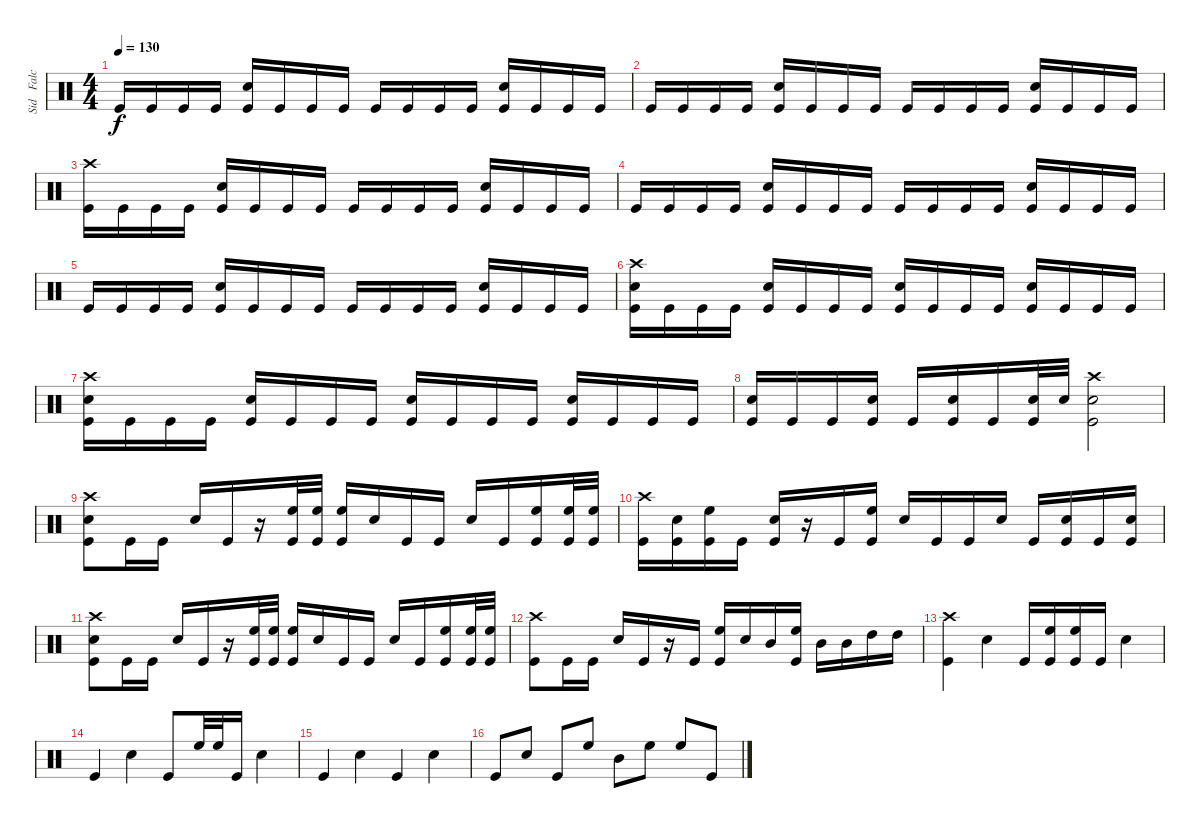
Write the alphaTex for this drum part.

\track ("Sid   Falck  - Drums" "Sid   Falc") {instrument percussion}
\staff {score}
\articulation defaults
\ts (4 4)
\tempo 130
\clef neutral
\ks c "Kick (hit)".16{dy f} "Kick (hit)".16 "Kick (hit)".16 "Kick (hit)".16
("Electric Snare (hit)" "Kick (hit)").16 "Kick (hit)".16 "Kick (hit)".16 "Kick (hit)".16 "Kick (hit)".16 "Kick (hit)".16 "Kick (hit)".16 "Kick (hit)".16 ("Electric Snare (hit)" "Kick (hit)").16 "Kick (hit)".16 "Kick (hit)".16 "Kick (hit)".16 |
"Kick (hit)".16 "Kick (hit)".16 "Kick (hit)".16 "Kick (hit)".16 ("Electric Snare (hit)" "Kick (hit)").16 "Kick (hit)".16 "Kick (hit)".16 "Kick (hit)".16 "Kick (hit)".16 "Kick (hit)".16 "Kick (hit)".16 "Kick (hit)".16 ("Electric Snare (hit)" "Kick (hit)").16 "Kick (hit)".16 "Kick (hit)".16 "Kick (hit)".16 |
("Crash high (hit)" "Kick (hit)").16 "Kick (hit)".16 "Kick (hit)".16 "Kick (hit)".16 ("Electric Snare (hit)" "Kick (hit)").16 "Kick (hit)".16 "Kick (hit)".16 "Kick (hit)".16 "Kick (hit)".16 "Kick (hit)".16 "Kick (hit)".16 "Kick (hit)".16 ("Electric Snare (hit)" "Kick (hit)").16 "Kick (hit)".16 "Kick (hit)".16 "Kick (hit)".16 |
"Kick (hit)".16 "Kick (hit)".16 "Kick (hit)".16 "Kick (hit)".16 ("Electric Snare (hit)" "Kick (hit)").16 "Kick (hit)".16 "Kick (hit)".16 "Kick (hit)".16 "Kick (hit)".16 "Kick (hit)".16 "Kick (hit)".16 "Kick (hit)".16 ("Electric Snare (hit)" "Kick (hit)").16 "Kick (hit)".16 "Kick (hit)".16 "Kick (hit)".16 |
"Kick (hit)".16 "Kick (hit)".16 "Kick (hit)".16 "Kick (hit)".16 ("Electric Snare (hit)" "Kick (hit)").16 "Kick (hit)".16 "Kick (hit)".16 "Kick (hit)".16 "Kick (hit)".16 "Kick (hit)".16 "Kick (hit)".16 "Kick (hit)".16 ("Electric Snare (hit)" "Kick (hit)").16 "Kick (hit)".16 "Kick (hit)".16 "Kick (hit)".16 |
("Crash high (hit)" "Electric Snare (hit)" "Kick (hit)").16 "Kick (hit)".16 "Kick (hit)".16 "Kick (hit)".16 ("Electric Snare (hit)" "Kick (hit)").16 "Kick (hit)".16 "Kick (hit)".16 "Kick (hit)".16 ("Electric Snare (hit)" "Kick (hit)").16 "Kick (hit)".16 "Kick (hit)".16 "Kick (hit)".16 ("Electric Snare (hit)" "Kick (hit)").16 "Kick (hit)".16 "Kick (hit)".16 "Kick (hit)".16 |
("Crash high (hit)" "Electric Snare (hit)" "Kick (hit)").16 "Kick (hit)".16 "Kick (hit)".16 "Kick (hit)".16 ("Electric Snare (hit)" "Kick (hit)").16 "Kick (hit)".16 "Kick (hit)".16 "Kick (hit)".16 ("Electric Snare (hit)" "Kick (hit)").16 "Kick (hit)".16 "Kick (hit)".16 "Kick (hit)".16 ("Electric Snare (hit)" "Kick (hit)").16 "Kick (hit)".16 "Kick (hit)".16 "Kick (hit)".16 |
("Electric Snare (hit)" "Kick (hit)").16 "Kick (hit)".16 "Kick (hit)".16 ("Electric Snare (hit)" "Kick (hit)").16 "Kick (hit)".16 ("Electric Snare (hit)" "Kick (hit)").16 "Kick (hit)".16 ("Electric Snare (hit)" "Kick (hit)").32 "Electric Snare (hit)".32 ("Crash high (hit)" "Electric Snare (hit)" "Kick (hit)").2 |
("Crash high (hit)" "Electric Snare (hit)" "Kick (hit)").8 "Kick (hit)".16 "Kick (hit)".16 "Electric Snare (hit)".16 "Kick (hit)".16 r.16 ("High Floor Tom (hit)" "Kick (hit)").32 ("High Floor Tom (hit)" "Kick (hit)").32 ("High Floor Tom (hit)" "Kick (hit)").16 "Electric Snare (hit)".16 "Kick (hit)".16 "Kick (hit)".16 "Electric Snare (hit)".16 "Kick (hit)".16 ("High Floor Tom (hit)" "Kick (hit)").16 ("High Floor Tom (hit)" "Kick (hit)").32 ("High Floor Tom (hit)" "Kick (hit)").32 |
("Crash high (hit)" "Kick (hit)").16 ("Electric Snare (hit)" "Kick (hit)").16 ("High Floor Tom (hit)" "Kick (hit)").16 "Kick (hit)".16 ("Electric Snare (hit)" "Kick (hit)").16 r.16 "Kick (hit)".16 ("High Floor Tom (hit)" "Kick (hit)").16 "Electric Snare (hit)".16 "Kick (hit)".16 "Kick (hit)".16 "Electric Snare (hit)".16 "Kick (hit)".16 ("Electric Snare (hit)" "Kick (hit)").16 "Kick (hit)".16 ("Electric Snare (hit)" "Kick (hit)").16 |
("Crash high (hit)" "Electric Snare (hit)" "Kick (hit)").8 "Kick (hit)".16 "Kick (hit)".16 "Electric Snare (hit)".16 "Kick (hit)".16 r.16 ("High Floor Tom (hit)" "Kick (hit)").32 ("High Floor Tom (hit)" "Kick (hit)").32 ("High Floor Tom (hit)" "Kick (hit)").16 "Electric Snare (hit)".16 "Kick (hit)".16 "Kick (hit)".16 "Electric Snare (hit)".16 "Kick (hit)".16 ("High Floor Tom (hit)" "Kick (hit)").16 ("High Floor Tom (hit)" "Kick (hit)").32 ("High Floor Tom (hit)" "Kick (hit)").32 |
("Crash high (hit)" "Kick (hit)").8 "Kick (hit)".16 "Kick (hit)".16 "Electric Snare (hit)".16 "Kick (hit)".16 r.16 "Kick (hit)".16 ("High Floor Tom (hit)" "Kick (hit)").16 "Electric Snare (hit)".16 "Mid Tom (hit)".16 ("High Floor Tom (hit)" "Kick (hit)").16 "Mid Tom (hit)".16 "Mid Tom (hit)".16 "High Tom (hit)".16 "High Tom (hit)".16 |
("Crash high (hit)" "Kick (hit)").4 "Electric Snare (hit)".4 "Kick (hit)".16 ("High Floor Tom (hit)" "Kick (hit)").16 ("High Floor Tom (hit)" "Kick (hit)").16 "Kick (hit)".16 "Electric Snare (hit)".4 |
"Kick (hit)".4 "Electric Snare (hit)".4 "Kick (hit)".8 "High Floor Tom (hit)".32 "High Floor Tom (hit)".32 "Kick (hit)".16 "Electric Snare (hit)".4 |
"Kick (hit)".4 "Electric Snare (hit)".4 "Kick (hit)".4 "Electric Snare (hit)".4 |
"Kick (hit)".8 "Electric Snare (hit)".8 "Kick (hit)".8 "High Floor Tom (hit)".8 "Mid Tom (hit)".8 "High Floor Tom (hit)".8 "High Floor Tom (hit)".8 "Kick (hit)".8
